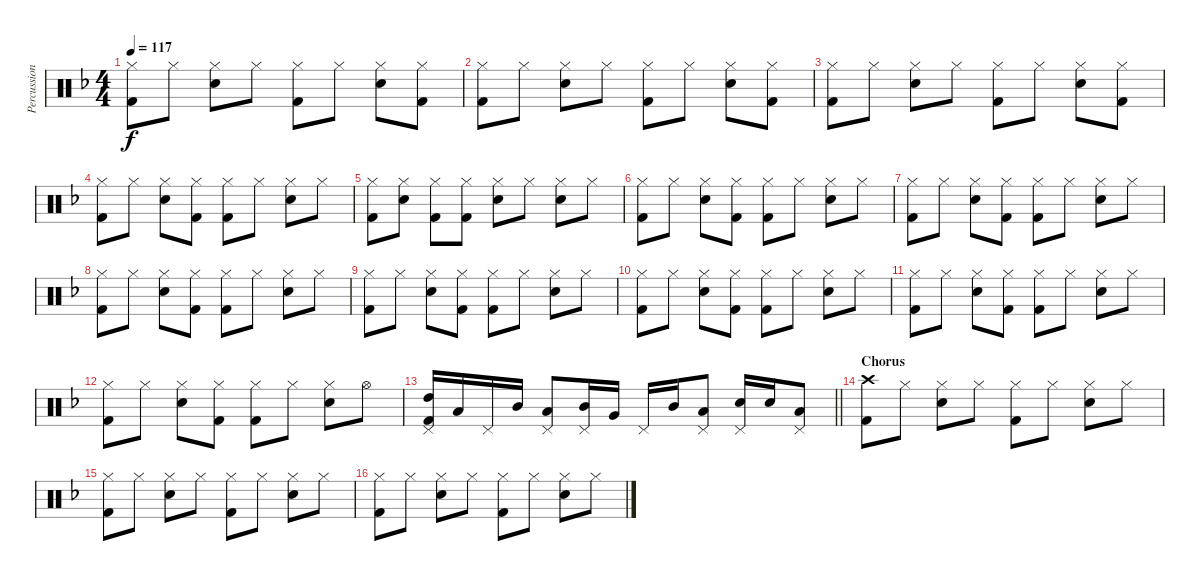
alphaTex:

\track ("Percussion" "Percussion") {instrument percussion}
\staff {score}
\articulation defaults
\ts (4 4)
\tempo 117
\clef neutral
\ks f
("Hi-Hat (closed)" "Kick (hit) 2").8{dy f} "Hi-Hat (closed)".8 ("Hi-Hat (closed)" "Electric Snare (hit)").8 "Hi-Hat (closed)".8 ("Hi-Hat (closed)" "Kick (hit) 2").8 "Hi-Hat (closed)".8 ("Hi-Hat (closed)" "Electric Snare (hit)").8 ("Hi-Hat (closed)" "Kick (hit) 2").8 |
("Hi-Hat (closed)" "Kick (hit) 2").8 "Hi-Hat (closed)".8 ("Hi-Hat (closed)" "Electric Snare (hit)").8 "Hi-Hat (closed)".8 ("Hi-Hat (closed)" "Kick (hit) 2").8 "Hi-Hat (closed)".8 ("Hi-Hat (closed)" "Electric Snare (hit)").8 ("Hi-Hat (closed)" "Kick (hit) 2").8 |
("Hi-Hat (closed)" "Kick (hit) 2").8 "Hi-Hat (closed)".8 ("Hi-Hat (closed)" "Electric Snare (hit)").8 "Hi-Hat (closed)".8 ("Hi-Hat (closed)" "Kick (hit) 2").8 "Hi-Hat (closed)".8 ("Hi-Hat (closed)" "Electric Snare (hit)").8 ("Hi-Hat (closed)" "Kick (hit) 2").8 |
("Hi-Hat (closed)" "Kick (hit) 2").8 "Hi-Hat (closed)".8 ("Hi-Hat (closed)" "Electric Snare (hit)").8 ("Hi-Hat (closed)" "Kick (hit) 2").8 ("Hi-Hat (closed)" "Kick (hit) 2").8 "Hi-Hat (closed)".8 ("Hi-Hat (closed)" "Electric Snare (hit)").8 "Hi-Hat (closed)".8 |
("Hi-Hat (closed)" "Kick (hit) 2").8 ("Hi-Hat (closed)" "Electric Snare (hit)").8 ("Hi-Hat (closed)" "Kick (hit) 2").8 ("Hi-Hat (closed)" "Kick (hit) 2").8 ("Hi-Hat (closed)" "Electric Snare (hit)").8 "Hi-Hat (closed)".8 ("Hi-Hat (closed)" "Electric Snare (hit)").8 "Hi-Hat (closed)".8 |
("Hi-Hat (closed)" "Kick (hit) 2").8 "Hi-Hat (closed)".8 ("Hi-Hat (closed)" "Electric Snare (hit)").8 ("Hi-Hat (closed)" "Kick (hit) 2").8 ("Hi-Hat (closed)" "Kick (hit) 2").8 "Hi-Hat (closed)".8 ("Hi-Hat (closed)" "Electric Snare (hit)").8 "Hi-Hat (closed)".8 |
("Hi-Hat (closed)" "Kick (hit) 2").8 "Hi-Hat (closed)".8 ("Hi-Hat (closed)" "Electric Snare (hit)").8 ("Hi-Hat (closed)" "Kick (hit) 2").8 ("Hi-Hat (closed)" "Kick (hit) 2").8 "Hi-Hat (closed)".8 ("Hi-Hat (closed)" "Electric Snare (hit)").8 "Hi-Hat (closed)".8 |
("Hi-Hat (closed)" "Kick (hit) 2").8 "Hi-Hat (closed)".8 ("Hi-Hat (closed)" "Electric Snare (hit)").8 ("Hi-Hat (closed)" "Kick (hit) 2").8 ("Hi-Hat (closed)" "Kick (hit) 2").8 "Hi-Hat (closed)".8 ("Hi-Hat (closed)" "Electric Snare (hit)").8 "Hi-Hat (closed)".8 |
("Hi-Hat (closed)" "Kick (hit) 2").8 "Hi-Hat (closed)".8 ("Hi-Hat (closed)" "Electric Snare (hit)").8 ("Hi-Hat (closed)" "Kick (hit) 2").8 ("Hi-Hat (closed)" "Kick (hit) 2").8 "Hi-Hat (closed)".8 ("Hi-Hat (closed)" "Electric Snare (hit)").8 "Hi-Hat (closed)".8 |
("Hi-Hat (closed)" "Kick (hit) 2").8 "Hi-Hat (closed)".8 ("Hi-Hat (closed)" "Electric Snare (hit)").8 ("Hi-Hat (closed)" "Kick (hit) 2").8 ("Hi-Hat (closed)" "Kick (hit) 2").8 "Hi-Hat (closed)".8 ("Hi-Hat (closed)" "Electric Snare (hit)").8 "Hi-Hat (closed)".8 |
("Hi-Hat (closed)" "Kick (hit) 2").8 "Hi-Hat (closed)".8 ("Hi-Hat (closed)" "Electric Snare (hit)").8 ("Hi-Hat (closed)" "Kick (hit) 2").8 ("Hi-Hat (closed)" "Kick (hit) 2").8 "Hi-Hat (closed)".8 ("Hi-Hat (closed)" "Electric Snare (hit)").8 "Hi-Hat (closed)".8 |
("Hi-Hat (closed)" "Kick (hit) 2").8 "Hi-Hat (closed)".8 ("Hi-Hat (closed)" "Electric Snare (hit)").8 ("Hi-Hat (closed)" "Kick (hit) 2").8 ("Hi-Hat (closed)" "Kick (hit) 2").8 "Hi-Hat (closed)".8 ("Hi-Hat (closed)" "Electric Snare (hit)").8 "Hi-Hat (open)".8 |
\barLineRight lightlight
("Pedal Hi-Hat (hit)" "High Tom (hit)" "Kick (hit) 2").16 "Low Tom (hit)".16 "Pedal Hi-Hat (hit)".16 "Mid Tom (hit)".16 ("Pedal Hi-Hat (hit)" "Low Tom (hit)").8 ("Pedal Hi-Hat (hit)" "Mid Tom (hit)").16 "Very Low Tom (hit)".16 "Pedal Hi-Hat (hit)".16 "Mid Tom (hit)".16 ("Pedal Hi-Hat (hit)" "Low Tom (hit)").8 ("Pedal Hi-Hat (hit)" "Electric Snare (hit)").16 "Electric Snare (hit)".16 ("Pedal Hi-Hat (hit)" "Low Tom (hit)").8 |
\section ("" "Chorus")
("Crash high (hit)" "Kick (hit) 2").8 "Hi-Hat (closed)".8 ("Hi-Hat (closed)" "Electric Snare (hit)").8 "Hi-Hat (closed)".8 ("Hi-Hat (closed)" "Kick (hit) 2").8 "Hi-Hat (closed)".8 ("Hi-Hat (closed)" "Electric Snare (hit)").8 "Hi-Hat (closed)".8 |
("Hi-Hat (closed)" "Kick (hit) 2").8 "Hi-Hat (closed)".8 ("Hi-Hat (closed)" "Electric Snare (hit)").8 "Hi-Hat (closed)".8 ("Hi-Hat (closed)" "Kick (hit) 2").8 "Hi-Hat (closed)".8 ("Hi-Hat (closed)" "Electric Snare (hit)").8 "Hi-Hat (closed)".8 |
("Hi-Hat (closed)" "Kick (hit) 2").8 "Hi-Hat (closed)".8 ("Hi-Hat (closed)" "Electric Snare (hit)").8 "Hi-Hat (closed)".8 ("Hi-Hat (closed)" "Kick (hit) 2").8 "Hi-Hat (closed)".8 ("Hi-Hat (closed)" "Electric Snare (hit)").8 "Hi-Hat (closed)".8
